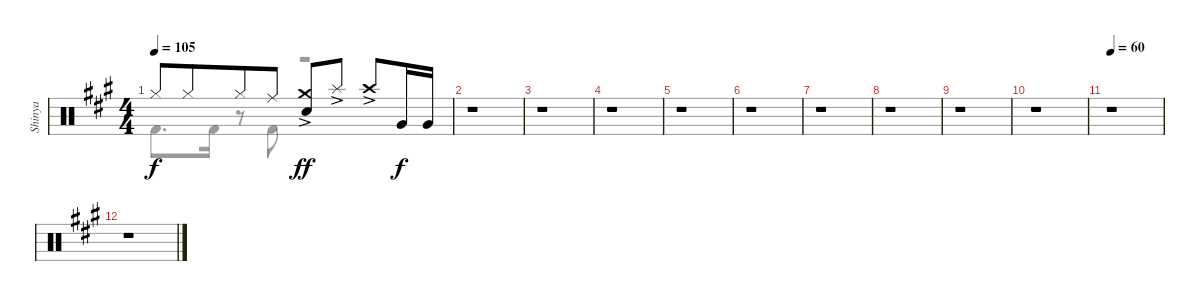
\track ("Shinya" "Shinya") {instrument percussion}
\staff {score}
\articulation defaults
\voice
\ts (4 4)
\tempo 105
\clef neutral
\ks f#minor "Hi-Hat (closed)".8{dy f} "Hi-Hat (closed)".8{beam merge} "Hi-Hat (closed)".8 "Ride (middle)".8
("Crash medium (hit)"{ac} "Snare (hit) 2").8{dy ff} "Splash (hit)"{ac}.8 "Crash high (hit)"{ac}.8 "Very Low Tom (hit)".16{dy f} "Very Low Tom (hit)".16 |
r.1 |
r.1 |
r.1 |
r.1 |
r.1 |
r.1 |
r.1 |
r.1 |
r.1 |
\tempo 60
r.1 |
r.1
\voice
\clef neutral
\ottava regular
\simile none
\ks f#minor "Kick (hit) 2".8{d dy f} "Kick (hit) 2".16
r.8 "Kick (hit) 2".8 r.2 |
r.1 |
r.1 |
r.1 |
r.1 |
r.1 |
r.1 |
r.1 |
r.1 |
r.1 |
r.1 |
r.1
